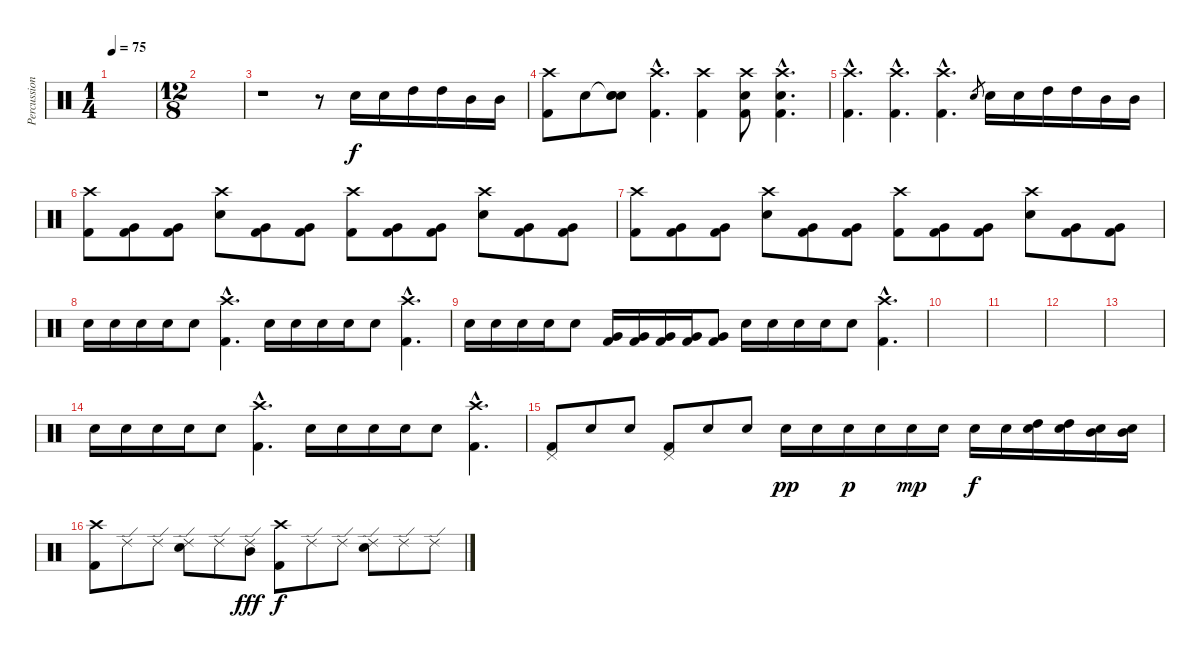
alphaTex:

\track ("Percussions" "Percussion") {instrument percussion}
\staff {score}
\articulation defaults
\ts (1 4)
\tempo 75
\clef neutral
\ks c
|
\ts (12 8)
|
r.1 r.8 "Electric Snare (hit)".16 "Electric Snare (hit)".16 "High Tom (hit)".16 "High Tom (hit)".16 "Mid Tom (hit)".16 "Mid Tom (hit)".16 |
("Crash high (hit)" "Kick (hit) 2").8 "Metronome (bell)".8 ("Snare (hit)"{t} "Metronome (bell)" "Snare (hit)").8 ("Crash high (hit)"{hac} "Kick (hit) 2"{hac}).4{d} ("Crash high (hit)" "Kick (hit) 2").4 ("Crash high (hit)"{pm} "Metronome (bell)" "Kick (hit) 2").8 ("Crash high (hit)"{hac} "Metronome (bell)"{hac} "Kick (hit) 2"{hac}).4{d} |
("Crash high (hit)"{hac} "Kick (hit) 2"{hac}).4{d} ("Crash high (hit)"{hac} "Kick (hit) 2"{hac}).4{d} ("Crash high (hit)"{hac} "Kick (hit) 2"{hac}).4{d} "Electric Snare (hit)".8{gr} "Electric Snare (hit)".16 "Electric Snare (hit)".16 "High Tom (hit)".16 "High Tom (hit)".16 "Mid Tom (hit)".16 "Mid Tom (hit)".16 |
("Crash high (hit)" "Kick (hit) 2").8 ("Very Low Tom (hit)" "Kick (hit) 2").8 ("Very Low Tom (hit)" "Kick (hit) 2").8 ("Crash high (hit)" "Electric Snare (hit)").8 ("Very Low Tom (hit)" "Kick (hit) 2").8 ("Very Low Tom (hit)" "Kick (hit) 2").8 ("Crash high (hit)" "Kick (hit) 2").8 ("Very Low Tom (hit)" "Kick (hit) 2").8 ("Very Low Tom (hit)" "Kick (hit) 2").8 ("Crash high (hit)" "Electric Snare (hit)").8 ("Very Low Tom (hit)" "Kick (hit) 2").8 ("Very Low Tom (hit)" "Kick (hit) 2").8 |
("Crash high (hit)" "Kick (hit) 2").8 ("Very Low Tom (hit)" "Kick (hit) 2").8 ("Very Low Tom (hit)" "Kick (hit) 2").8 ("Crash high (hit)" "Electric Snare (hit)").8 ("Very Low Tom (hit)" "Kick (hit) 2").8 ("Very Low Tom (hit)" "Kick (hit) 2").8 ("Crash high (hit)" "Kick (hit) 2").8 ("Very Low Tom (hit)" "Kick (hit) 2").8 ("Very Low Tom (hit)" "Kick (hit) 2").8 ("Crash high (hit)" "Electric Snare (hit)").8 ("Very Low Tom (hit)" "Kick (hit) 2").8 ("Very Low Tom (hit)" "Kick (hit) 2").8 |
"Electric Snare (hit)".16 "Electric Snare (hit)".16 "Electric Snare (hit)".16 "Electric Snare (hit)".16 "Electric Snare (hit)".8 ("Crash high (hit)"{hac} "Kick (hit) 2"{hac}).4{d} "Electric Snare (hit)".16 "Electric Snare (hit)".16 "Electric Snare (hit)".16 "Electric Snare (hit)".16 "Electric Snare (hit)".8 ("Crash high (hit)"{hac} "Kick (hit) 2"{hac}).4{d} |
"Electric Snare (hit)".16 "Electric Snare (hit)".16 "Electric Snare (hit)".16 "Electric Snare (hit)".16 "Electric Snare (hit)".8 ("Very Low Tom (hit)" "Kick (hit) 2").16 ("Very Low Tom (hit)" "Kick (hit) 2").16 ("Very Low Tom (hit)" "Kick (hit) 2").16 ("Very Low Tom (hit)" "Kick (hit) 2").16 ("Very Low Tom (hit)" "Kick (hit) 2").8 "Electric Snare (hit)".16 "Electric Snare (hit)".16 "Electric Snare (hit)".16 "Electric Snare (hit)".16 "Electric Snare (hit)".8 ("Crash high (hit)"{hac} "Kick (hit) 2"{hac}).4{d} |
|
|
|
|
"Electric Snare (hit)".16 "Electric Snare (hit)".16 "Electric Snare (hit)".16 "Electric Snare (hit)".16 "Electric Snare (hit)".8 ("Crash high (hit)"{hac} "Kick (hit) 2"{hac}).4{d} "Electric Snare (hit)".16 "Electric Snare (hit)".16 "Electric Snare (hit)".16 "Electric Snare (hit)".16 "Electric Snare (hit)".8 ("Crash high (hit)"{hac} "Kick (hit) 2"{hac}).4{d} |
("Pedal Hi-Hat (hit)" "Kick (hit) 2").8 "Electric Snare (hit)".8 "Electric Snare (hit)".8 ("Pedal Hi-Hat (hit)" "Kick (hit) 2").8 "Electric Snare (hit)".8 "Electric Snare (hit)".8 "Electric Snare (hit)".16{dy pp} "Electric Snare (hit)".16 "Electric Snare (hit)".16{dy p} "Electric Snare (hit)".16 "Electric Snare (hit)".16{dy mp} "Electric Snare (hit)".16 "Electric Snare (hit)".16{dy f} "Electric Snare (hit)".16 ("High Tom (hit)" "Electric Snare (hit)").16 ("High Tom (hit)" "Electric Snare (hit)").16 ("Mid Tom (hit)" "Electric Snare (hit)").16 ("Mid Tom (hit)" "Electric Snare (hit)").16 |
("Crash high (hit)" "Kick (hit) 2").8 "Ride (edge) 2".8 "Ride (edge) 2".8 ("Ride (edge) 2" "Electric Snare (hit)").8 "Ride (edge) 2".8 ("Ride (edge) 2" "Mid Tom (hit)").8{dy fff} ("Crash high (hit)" "Kick (hit) 2").8{dy f} "Ride (edge) 2".8 "Ride (edge) 2".8 ("Ride (edge) 2" "Electric Snare (hit)").8 "Ride (edge) 2".8 "Ride (edge) 2".8
